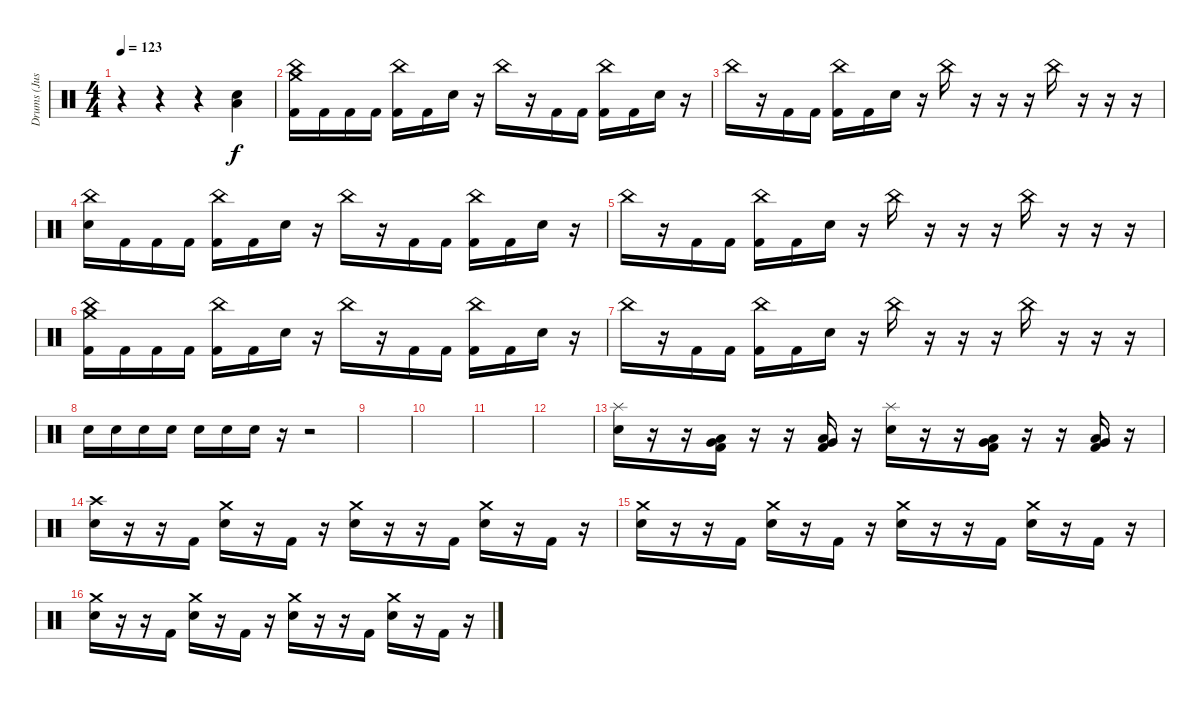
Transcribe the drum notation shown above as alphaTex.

\track ("Drums (Justin)" "Drums (Jus") {instrument percussion}
\staff {score}
\articulation defaults
\ts (4 4)
\tempo 123
\clef neutral
\ks c
r.4{dy f} r.4 r.4 ("Electric Snare (hit)" "Low Floor Tom (hit)").4 |
("Crash medium (hit)" "China (hit)" "Kick (hit) 2").16 "Kick (hit) 2".16 "Kick (hit) 2".16 "Kick (hit) 2".16 ("China (hit)" "Kick (hit) 2").16 "Kick (hit) 2".16 "Electric Snare (hit)".16 r.16 "China (hit)".16 r.16 "Kick (hit) 2".16 "Kick (hit) 2".16 ("China (hit)" "Kick (hit) 2").16 "Kick (hit) 2".16 "Electric Snare (hit)".16 r.16 |
"China (hit)".16 r.16 "Kick (hit) 2".16 "Kick (hit) 2".16 ("China (hit)" "Kick (hit) 2").16 "Kick (hit) 2".16 "Electric Snare (hit)".16 r.16 "China (hit)".16 r.16 r.16 r.16 "China (hit)".16 r.16 r.16 r.16 |
("Electric Snare (hit)" "China (hit)").16 "Kick (hit) 2".16 "Kick (hit) 2".16 "Kick (hit) 2".16 ("China (hit)" "Kick (hit) 2").16 "Kick (hit) 2".16 "Electric Snare (hit)".16 r.16 "China (hit)".16 r.16 "Kick (hit) 2".16 "Kick (hit) 2".16 ("China (hit)" "Kick (hit) 2").16 "Kick (hit) 2".16 "Electric Snare (hit)".16 r.16 |
"China (hit)".16 r.16 "Kick (hit) 2".16 "Kick (hit) 2".16 ("China (hit)" "Kick (hit) 2").16 "Kick (hit) 2".16 "Electric Snare (hit)".16 r.16 "China (hit)".16 r.16 r.16 r.16 "China (hit)".16 r.16 r.16 r.16 |
("Crash medium (hit)" "China (hit)" "Kick (hit) 2").16 "Kick (hit) 2".16 "Kick (hit) 2".16 "Kick (hit) 2".16 ("China (hit)" "Kick (hit) 2").16 "Kick (hit) 2".16 "Electric Snare (hit)".16 r.16 "China (hit)".16 r.16 "Kick (hit) 2".16 "Kick (hit) 2".16 ("China (hit)" "Kick (hit) 2").16 "Kick (hit) 2".16 "Electric Snare (hit)".16 r.16 |
"China (hit)".16 r.16 "Kick (hit) 2".16 "Kick (hit) 2".16 ("China (hit)" "Kick (hit) 2").16 "Kick (hit) 2".16 "Electric Snare (hit)".16 r.16 "China (hit)".16 r.16 r.16 r.16 "China (hit)".16 r.16 r.16 r.16 |
"Electric Snare (hit)".16 "Electric Snare (hit)".16 "Electric Snare (hit)".16 "Electric Snare (hit)".16 "Electric Snare (hit)".16 "Electric Snare (hit)".16 "Electric Snare (hit)".16 r.16 r.2 |
|
|
|
|
("Electric Snare (hit)" "Splash (hit)").16 r.16 r.16 ("Very Low Tom (hit)" "Low Floor Tom (hit)" "Kick (hit) 2").16 r.16 r.16 ("Very Low Tom (hit)" "Low Floor Tom (hit)" "Kick (hit) 2").16 r.16 ("Electric Snare (hit)" "Splash (hit)").16 r.16 r.16 ("Very Low Tom (hit)" "Low Floor Tom (hit)" "Kick (hit) 2").16 r.16 r.16 ("Very Low Tom (hit)" "Low Floor Tom (hit)" "Kick (hit) 2").16 r.16 |
("Electric Snare (hit)" "Crash high (hit)").16 r.16 r.16 "Kick (hit) 2".16 ("Electric Snare (hit)" "Crash medium (hit)").16 r.16 "Kick (hit) 2".16 r.16 ("Electric Snare (hit)" "Crash medium (hit)").16 r.16 r.16 "Kick (hit) 2".16 ("Electric Snare (hit)" "Crash medium (hit)").16 r.16 "Kick (hit) 2".16 r.16 |
("Electric Snare (hit)" "Crash medium (hit)").16 r.16 r.16 "Kick (hit) 2".16 ("Electric Snare (hit)" "Crash medium (hit)").16 r.16 "Kick (hit) 2".16 r.16 ("Electric Snare (hit)" "Crash medium (hit)").16 r.16 r.16 "Kick (hit) 2".16 ("Electric Snare (hit)" "Crash medium (hit)").16 r.16 "Kick (hit) 2".16 r.16 |
("Electric Snare (hit)" "Crash medium (hit)").16 r.16 r.16 "Kick (hit) 2".16 ("Electric Snare (hit)" "Crash medium (hit)").16 r.16 "Kick (hit) 2".16 r.16 ("Electric Snare (hit)" "Crash medium (hit)").16 r.16 r.16 "Kick (hit) 2".16 ("Electric Snare (hit)" "Crash medium (hit)").16 r.16 "Kick (hit) 2".16 r.16
